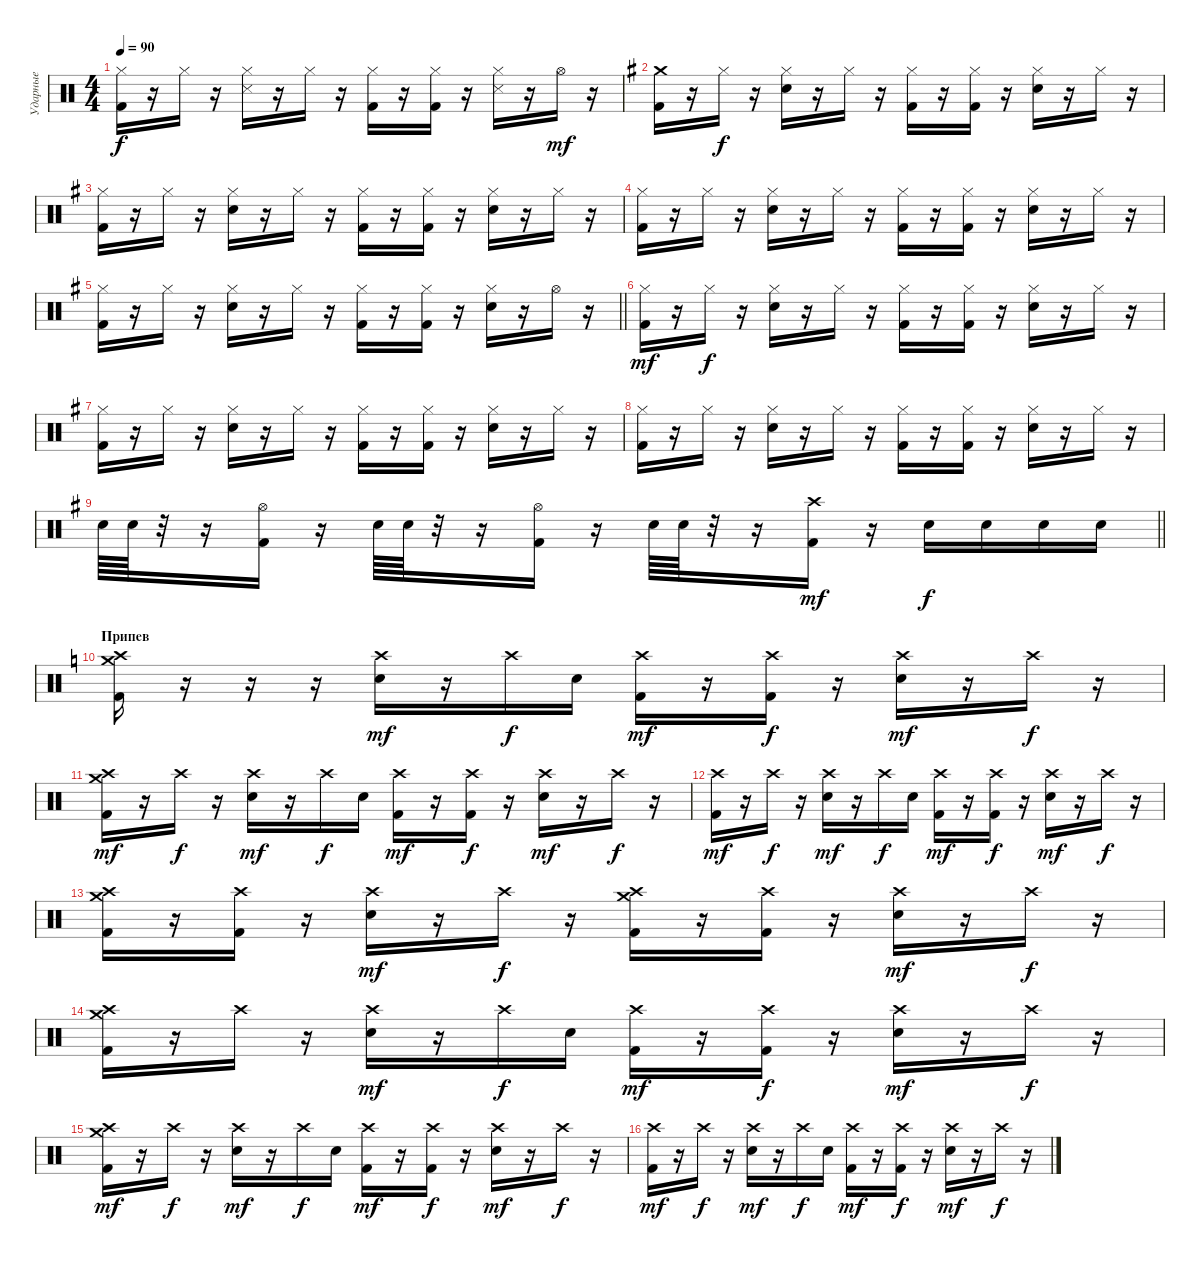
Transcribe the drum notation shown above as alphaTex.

\track ("Ударные" "Ударные") {instrument percussion}
\staff {score}
\articulation defaults
\ts (4 4)
\tempo 90
\clef neutral
\ks c
("Hi-Hat (closed)" "Kick (hit) 2").16{dy f} r.16 "Hi-Hat (closed)".16 r.16 ("Hi-Hat (closed)" "Snare (side stick) 3").16 r.16 "Hi-Hat (closed)".16 r.16 ("Hi-Hat (closed)" "Kick (hit) 2").16 r.16 ("Hi-Hat (closed)" "Kick (hit) 2").16 r.16 ("Hi-Hat (closed)" "Snare (side stick) 3").16 r.16 "Hi-Hat (open)".16{dy mf} r.16 |
\ks eminor
("Crash medium (hit)" "Kick (hit) 2").16 r.16 "Hi-Hat (closed)".16{dy f} r.16 ("Hi-Hat (closed)" "Electric Snare (hit)").16 r.16 "Hi-Hat (closed)".16 r.16 ("Hi-Hat (closed)" "Kick (hit) 2").16 r.16 ("Hi-Hat (closed)" "Kick (hit) 2").16 r.16 ("Hi-Hat (closed)" "Electric Snare (hit)").16 r.16 "Hi-Hat (closed)".16 r.16 |
("Hi-Hat (closed)" "Kick (hit) 2").16 r.16 "Hi-Hat (closed)".16 r.16 ("Hi-Hat (closed)" "Electric Snare (hit)").16 r.16 "Hi-Hat (closed)".16 r.16 ("Hi-Hat (closed)" "Kick (hit) 2").16 r.16 ("Hi-Hat (closed)" "Kick (hit) 2").16 r.16 ("Hi-Hat (closed)" "Electric Snare (hit)").16 r.16 "Hi-Hat (closed)".16 r.16 |
("Hi-Hat (closed)" "Kick (hit) 2").16 r.16 "Hi-Hat (closed)".16 r.16 ("Hi-Hat (closed)" "Electric Snare (hit)").16 r.16 "Hi-Hat (closed)".16 r.16 ("Hi-Hat (closed)" "Kick (hit) 2").16 r.16 ("Hi-Hat (closed)" "Kick (hit) 2").16 r.16 ("Hi-Hat (closed)" "Electric Snare (hit)").16 r.16 "Hi-Hat (closed)".16 r.16 |
\barLineRight lightlight
("Hi-Hat (closed)" "Kick (hit) 2").16 r.16 "Hi-Hat (closed)".16 r.16 ("Hi-Hat (closed)" "Electric Snare (hit)").16 r.16 "Hi-Hat (closed)".16 r.16 ("Hi-Hat (closed)" "Kick (hit) 2").16 r.16 ("Hi-Hat (closed)" "Kick (hit) 2").16 r.16 ("Hi-Hat (closed)" "Electric Snare (hit)").16 r.16 "Hi-Hat (open)".16 r.16 |
("Hi-Hat (closed)" "Kick (hit) 2").16{dy mf} r.16 "Hi-Hat (closed)".16{dy f} r.16 ("Hi-Hat (closed)" "Electric Snare (hit)").16 r.16 "Hi-Hat (closed)".16 r.16 ("Hi-Hat (closed)" "Kick (hit) 2").16 r.16 ("Hi-Hat (closed)" "Kick (hit) 2").16 r.16 ("Hi-Hat (closed)" "Electric Snare (hit)").16 r.16 "Hi-Hat (closed)".16 r.16 |
("Hi-Hat (closed)" "Kick (hit) 2").16 r.16 "Hi-Hat (closed)".16 r.16 ("Hi-Hat (closed)" "Electric Snare (hit)").16 r.16 "Hi-Hat (closed)".16 r.16 ("Hi-Hat (closed)" "Kick (hit) 2").16 r.16 ("Hi-Hat (closed)" "Kick (hit) 2").16 r.16 ("Hi-Hat (closed)" "Electric Snare (hit)").16 r.16 "Hi-Hat (closed)".16 r.16 |
("Hi-Hat (closed)" "Kick (hit) 2").16 r.16 "Hi-Hat (closed)".16 r.16 ("Hi-Hat (closed)" "Electric Snare (hit)").16 r.16 "Hi-Hat (closed)".16 r.16 ("Hi-Hat (closed)" "Kick (hit) 2").16 r.16 ("Hi-Hat (closed)" "Kick (hit) 2").16 r.16 ("Hi-Hat (closed)" "Electric Snare (hit)").16 r.16 "Hi-Hat (closed)".16 r.16 |
\barLineRight lightlight "Electric Snare (hit)".64 "Electric Snare (hit)".64
r.32 r.16 ("Hi-Hat (open)" "Kick (hit) 2").16 r.16 "Electric Snare (hit)".64 "Electric Snare (hit)".64 r.32 r.16 ("Hi-Hat (open)" "Kick (hit) 2").16 r.16 "Electric Snare (hit)".64 "Electric Snare (hit)".64 r.32 r.16 ("Crash high (hit)" "Kick (hit) 2").16{dy mf} r.16 "Electric Snare (hit)".16{dy f} "Electric Snare (hit)".16 "Electric Snare (hit)".16 "Electric Snare (hit)".16 |
\section ("" "Припев")
\ks c
("Crash medium (hit)" "Crash high (hit)" "Kick (hit) 2").16 r.16 r.16 r.16 ("Crash high (hit)" "Electric Snare (hit)").16{dy mf} r.16 "Crash high (hit)".16{dy f} "Electric Snare (hit)".16 ("Crash high (hit)" "Kick (hit) 2").16{dy mf} r.16 ("Crash high (hit)" "Kick (hit) 2").16{dy f} r.16 ("Crash high (hit)" "Electric Snare (hit)").16{dy mf} r.16 "Crash high (hit)".16{dy f} r.16 |
("Crash medium (hit)" "Crash high (hit)" "Kick (hit) 2").16{dy mf} r.16 "Crash high (hit)".16{dy f} r.16 ("Crash high (hit)" "Electric Snare (hit)").16{dy mf} r.16 "Crash high (hit)".16{dy f} "Electric Snare (hit)".16 ("Crash high (hit)" "Kick (hit) 2").16{dy mf} r.16 ("Crash high (hit)" "Kick (hit) 2").16{dy f} r.16 ("Crash high (hit)" "Electric Snare (hit)").16{dy mf} r.16 "Crash high (hit)".16{dy f} r.16 |
("Crash high (hit)" "Kick (hit) 2").16{dy mf} r.16 "Crash high (hit)".16{dy f} r.16 ("Crash high (hit)" "Electric Snare (hit)").16{dy mf} r.16 "Crash high (hit)".16{dy f} "Electric Snare (hit)".16 ("Crash high (hit)" "Kick (hit) 2").16{dy mf} r.16 ("Crash high (hit)" "Kick (hit) 2").16{dy f} r.16 ("Crash high (hit)" "Electric Snare (hit)").16{dy mf} r.16 "Crash high (hit)".16{dy f} r.16 |
("Crash medium (hit)" "Crash high (hit)" "Kick (hit) 2").16 r.16 ("Crash high (hit)" "Kick (hit) 2").16 r.16 ("Crash high (hit)" "Electric Snare (hit)").16{dy mf} r.16 "Crash high (hit)".16{dy f} r.16 ("Crash medium (hit)" "Crash high (hit)" "Kick (hit) 2").16 r.16 ("Crash high (hit)" "Kick (hit) 2").16 r.16 ("Crash high (hit)" "Electric Snare (hit)").16{dy mf} r.16 "Crash high (hit)".16{dy f} r.16 |
("Crash medium (hit)" "Crash high (hit)" "Kick (hit) 2").16 r.16 "Crash high (hit)".16 r.16 ("Crash high (hit)" "Electric Snare (hit)").16{dy mf} r.16 "Crash high (hit)".16{dy f} "Electric Snare (hit)".16 ("Crash high (hit)" "Kick (hit) 2").16{dy mf} r.16 ("Crash high (hit)" "Kick (hit) 2").16{dy f} r.16 ("Crash high (hit)" "Electric Snare (hit)").16{dy mf} r.16 "Crash high (hit)".16{dy f} r.16 |
("Crash medium (hit)" "Crash high (hit)" "Kick (hit) 2").16{dy mf} r.16 "Crash high (hit)".16{dy f} r.16 ("Crash high (hit)" "Electric Snare (hit)").16{dy mf} r.16 "Crash high (hit)".16{dy f} "Electric Snare (hit)".16 ("Crash high (hit)" "Kick (hit) 2").16{dy mf} r.16 ("Crash high (hit)" "Kick (hit) 2").16{dy f} r.16 ("Crash high (hit)" "Electric Snare (hit)").16{dy mf} r.16 "Crash high (hit)".16{dy f} r.16 |
("Crash high (hit)" "Kick (hit) 2").16{dy mf} r.16 "Crash high (hit)".16{dy f} r.16 ("Crash high (hit)" "Electric Snare (hit)").16{dy mf} r.16 "Crash high (hit)".16{dy f} "Electric Snare (hit)".16 ("Crash high (hit)" "Kick (hit) 2").16{dy mf} r.16 ("Crash high (hit)" "Kick (hit) 2").16{dy f} r.16 ("Crash high (hit)" "Electric Snare (hit)").16{dy mf} r.16 "Crash high (hit)".16{dy f} r.16
